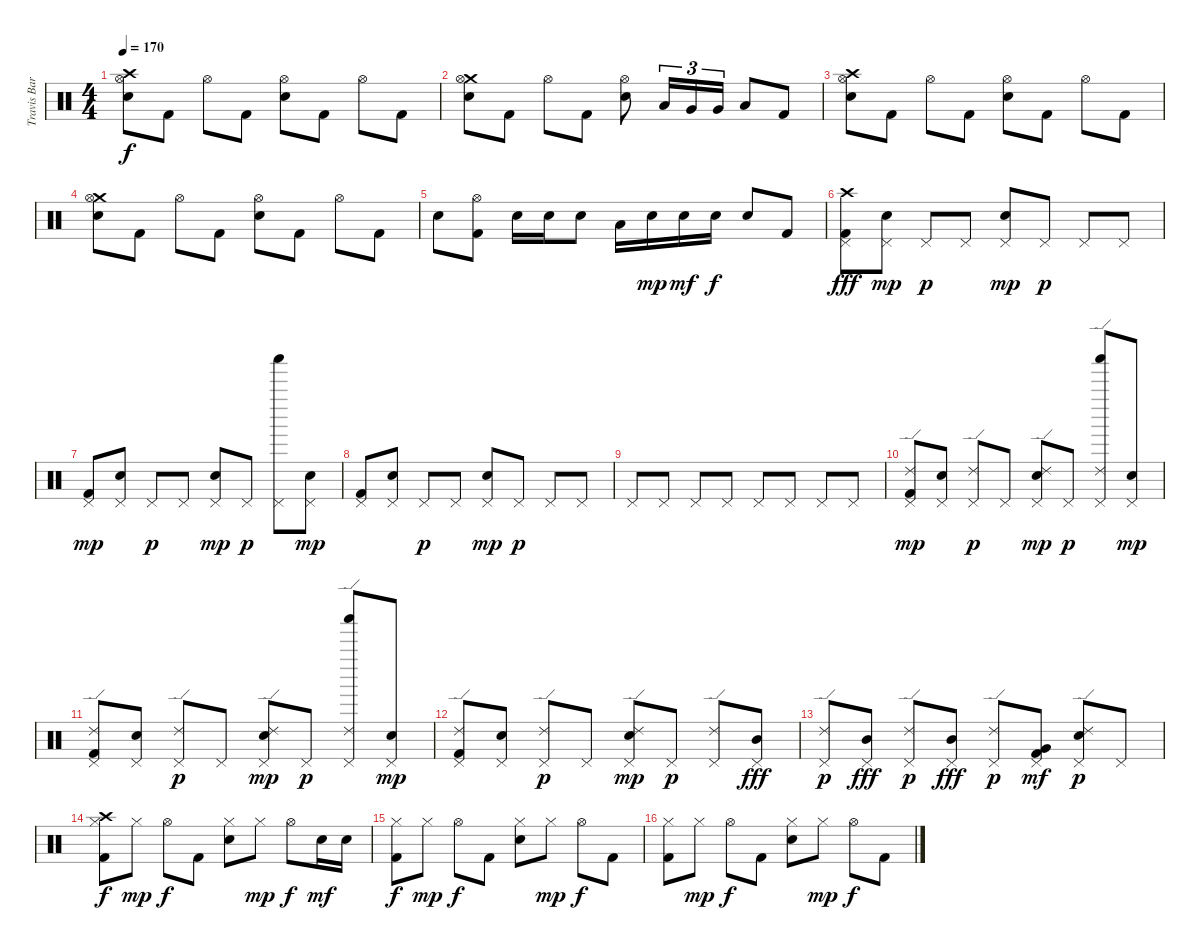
\track ("Travis Barker" "Travis Bar") {instrument percussion}
\staff {score}
\articulation defaults
\ts (4 4)
\tempo 170
\clef neutral
\ks c
("Crash high (hit)" "Hi-Hat (open)" "Snare (hit) 2").8{dy f} "Kick (hit) 2".8 "Hi-Hat (open)".8 "Kick (hit) 2".8 ("Hi-Hat (open)" "Snare (hit) 2").8 "Kick (hit) 2".8 "Hi-Hat (open)".8 "Kick (hit) 2".8 |
("Crash medium (hit)" "Hi-Hat (open)" "Snare (hit) 2").8 "Kick (hit) 2".8 "Hi-Hat (open)".8 "Kick (hit) 2".8 ("Hi-Hat (open)" "Snare (hit) 2").8 "Low Tom (hit)".16{tu (3 2)} "Very Low Tom (hit)".16{tu (3 2)} "Very Low Tom (hit)".16{tu (3 2)} "Low Tom (hit)".8 "Kick (hit) 2".8 |
("Crash high (hit)" "Hi-Hat (open)" "Snare (hit) 2").8 "Kick (hit) 2".8 "Hi-Hat (open)".8 "Kick (hit) 2".8 ("Hi-Hat (open)" "Snare (hit) 2").8 "Kick (hit) 2".8 "Hi-Hat (open)".8 "Kick (hit) 2".8 |
("Crash medium (hit)" "Hi-Hat (open)" "Snare (hit) 2").8 "Kick (hit) 2".8 "Hi-Hat (open)".8 "Kick (hit) 2".8 ("Hi-Hat (open)" "Snare (hit) 2").8 "Kick (hit) 2".8 "Hi-Hat (open)".8 "Kick (hit) 2".8 |
"Snare (hit) 2".8 ("Hi-Hat (open)" "Kick (hit) 2").8 "Snare (hit) 2".16 "Snare (hit) 2".16 "Snare (hit) 2".8 "Low Tom (hit)".16 "Snare (hit) 2".16{dy mp} "Snare (hit) 2".16{dy mf} "Snare (hit) 2".16{dy f} "Snare (hit) 2".8 "Kick (hit) 2".8 |
("Crash high (hit)" "Pedal Hi-Hat (hit)" "Kick (hit) 2").8{dy fff} ("Pedal Hi-Hat (hit)" "Electric Snare (hit)").8{dy mp} "Pedal Hi-Hat (hit)".8{dy p} "Pedal Hi-Hat (hit)".8 ("Pedal Hi-Hat (hit)" "Electric Snare (hit)").8{dy mp} "Pedal Hi-Hat (hit)".8{dy p} "Pedal Hi-Hat (hit)".8 "Pedal Hi-Hat (hit)".8 |
("Pedal Hi-Hat (hit)" "Kick (hit) 2").8{dy mp} ("Pedal Hi-Hat (hit)" "Electric Snare (hit)").8 "Pedal Hi-Hat (hit)".8{dy p} "Pedal Hi-Hat (hit)".8 ("Pedal Hi-Hat (hit)" "Electric Snare (hit)").8{dy mp} "Pedal Hi-Hat (hit)".8{dy p} ("Pedal Hi-Hat (hit)" "Shaker (hit)").8 ("Pedal Hi-Hat (hit)" "Electric Snare (hit)").8{dy mp} |
("Pedal Hi-Hat (hit)" "Kick (hit) 2").8 ("Pedal Hi-Hat (hit)" "Electric Snare (hit)").8 "Pedal Hi-Hat (hit)".8{dy p} "Pedal Hi-Hat (hit)".8 ("Pedal Hi-Hat (hit)" "Electric Snare (hit)").8{dy mp} "Pedal Hi-Hat (hit)".8{dy p} "Pedal Hi-Hat (hit)".8 "Pedal Hi-Hat (hit)".8 |
"Pedal Hi-Hat (hit)".8 "Pedal Hi-Hat (hit)".8 "Pedal Hi-Hat (hit)".8 "Pedal Hi-Hat (hit)".8 "Pedal Hi-Hat (hit)".8 "Pedal Hi-Hat (hit)".8 "Pedal Hi-Hat (hit)".8 "Pedal Hi-Hat (hit)".8 |
("Ride (edge) 2" "Pedal Hi-Hat (hit)" "Kick (hit) 2").8{dy mp} ("Pedal Hi-Hat (hit)" "Electric Snare (hit)").8 ("Ride (edge) 2" "Pedal Hi-Hat (hit)").8{dy p} "Pedal Hi-Hat (hit)".8 ("Ride (edge) 2" "Pedal Hi-Hat (hit)" "Electric Snare (hit)").8{dy mp} "Pedal Hi-Hat (hit)".8{dy p} ("Ride (edge) 2" "Pedal Hi-Hat (hit)" "Shaker (hit)").8 ("Pedal Hi-Hat (hit)" "Electric Snare (hit)").8{dy mp} |
("Ride (edge) 2" "Pedal Hi-Hat (hit)" "Kick (hit) 2").8 ("Pedal Hi-Hat (hit)" "Electric Snare (hit)").8 ("Ride (edge) 2" "Pedal Hi-Hat (hit)").8{dy p} "Pedal Hi-Hat (hit)".8 ("Ride (edge) 2" "Pedal Hi-Hat (hit)" "Electric Snare (hit)").8{dy mp} "Pedal Hi-Hat (hit)".8{dy p} ("Ride (edge) 2" "Pedal Hi-Hat (hit)" "Shaker (hit)").8 ("Pedal Hi-Hat (hit)" "Electric Snare (hit)").8{dy mp} |
("Ride (edge) 2" "Pedal Hi-Hat (hit)" "Kick (hit) 2").8 ("Pedal Hi-Hat (hit)" "Electric Snare (hit)").8 ("Ride (edge) 2" "Pedal Hi-Hat (hit)").8{dy p} "Pedal Hi-Hat (hit)".8 ("Ride (edge) 2" "Pedal Hi-Hat (hit)" "Electric Snare (hit)").8{dy mp} "Pedal Hi-Hat (hit)".8{dy p} ("Ride (edge) 2" "Pedal Hi-Hat (hit)").8 ("Pedal Hi-Hat (hit)" "Mid Tom (hit)").8{dy fff} |
("Ride (edge) 2" "Pedal Hi-Hat (hit)").8{dy p} ("Pedal Hi-Hat (hit)" "Mid Tom (hit)").8{dy fff} ("Ride (edge) 2" "Pedal Hi-Hat (hit)").8{dy p} ("Pedal Hi-Hat (hit)" "Mid Tom (hit)").8{dy fff} ("Ride (edge) 2" "Pedal Hi-Hat (hit)").8{dy p} ("Pedal Hi-Hat (hit)" "Kick (hit) 2" "Very Low Tom (hit)").8{dy mf} ("Ride (edge) 2" "Pedal Hi-Hat (hit)" "Snare (hit) 2").8{dy p} "Pedal Hi-Hat (hit)".8 |
("Crash high (hit)" "Hi-Hat (closed)" "Kick (hit) 2").8{dy f} "Hi-Hat (closed)".8{dy mp} "Hi-Hat (open)".8{dy f} "Kick (hit) 2".8 ("Hi-Hat (closed)" "Electric Snare (hit)").8 "Hi-Hat (closed)".8{dy mp} "Hi-Hat (open)".8{dy f} "Electric Snare (hit)".16{dy mf} "Electric Snare (hit)".16 |
("Hi-Hat (closed)" "Kick (hit) 2").8{dy f} "Hi-Hat (closed)".8{dy mp} "Hi-Hat (open)".8{dy f} "Kick (hit) 2".8 ("Hi-Hat (closed)" "Electric Snare (hit)").8 "Hi-Hat (closed)".8{dy mp} "Hi-Hat (open)".8{dy f} "Kick (hit) 2".8 |
("Hi-Hat (closed)" "Kick (hit) 2").8 "Hi-Hat (closed)".8{dy mp} "Hi-Hat (open)".8{dy f} "Kick (hit) 2".8 ("Hi-Hat (closed)" "Electric Snare (hit)").8 "Hi-Hat (closed)".8{dy mp} "Hi-Hat (open)".8{dy f} "Kick (hit) 2".8
